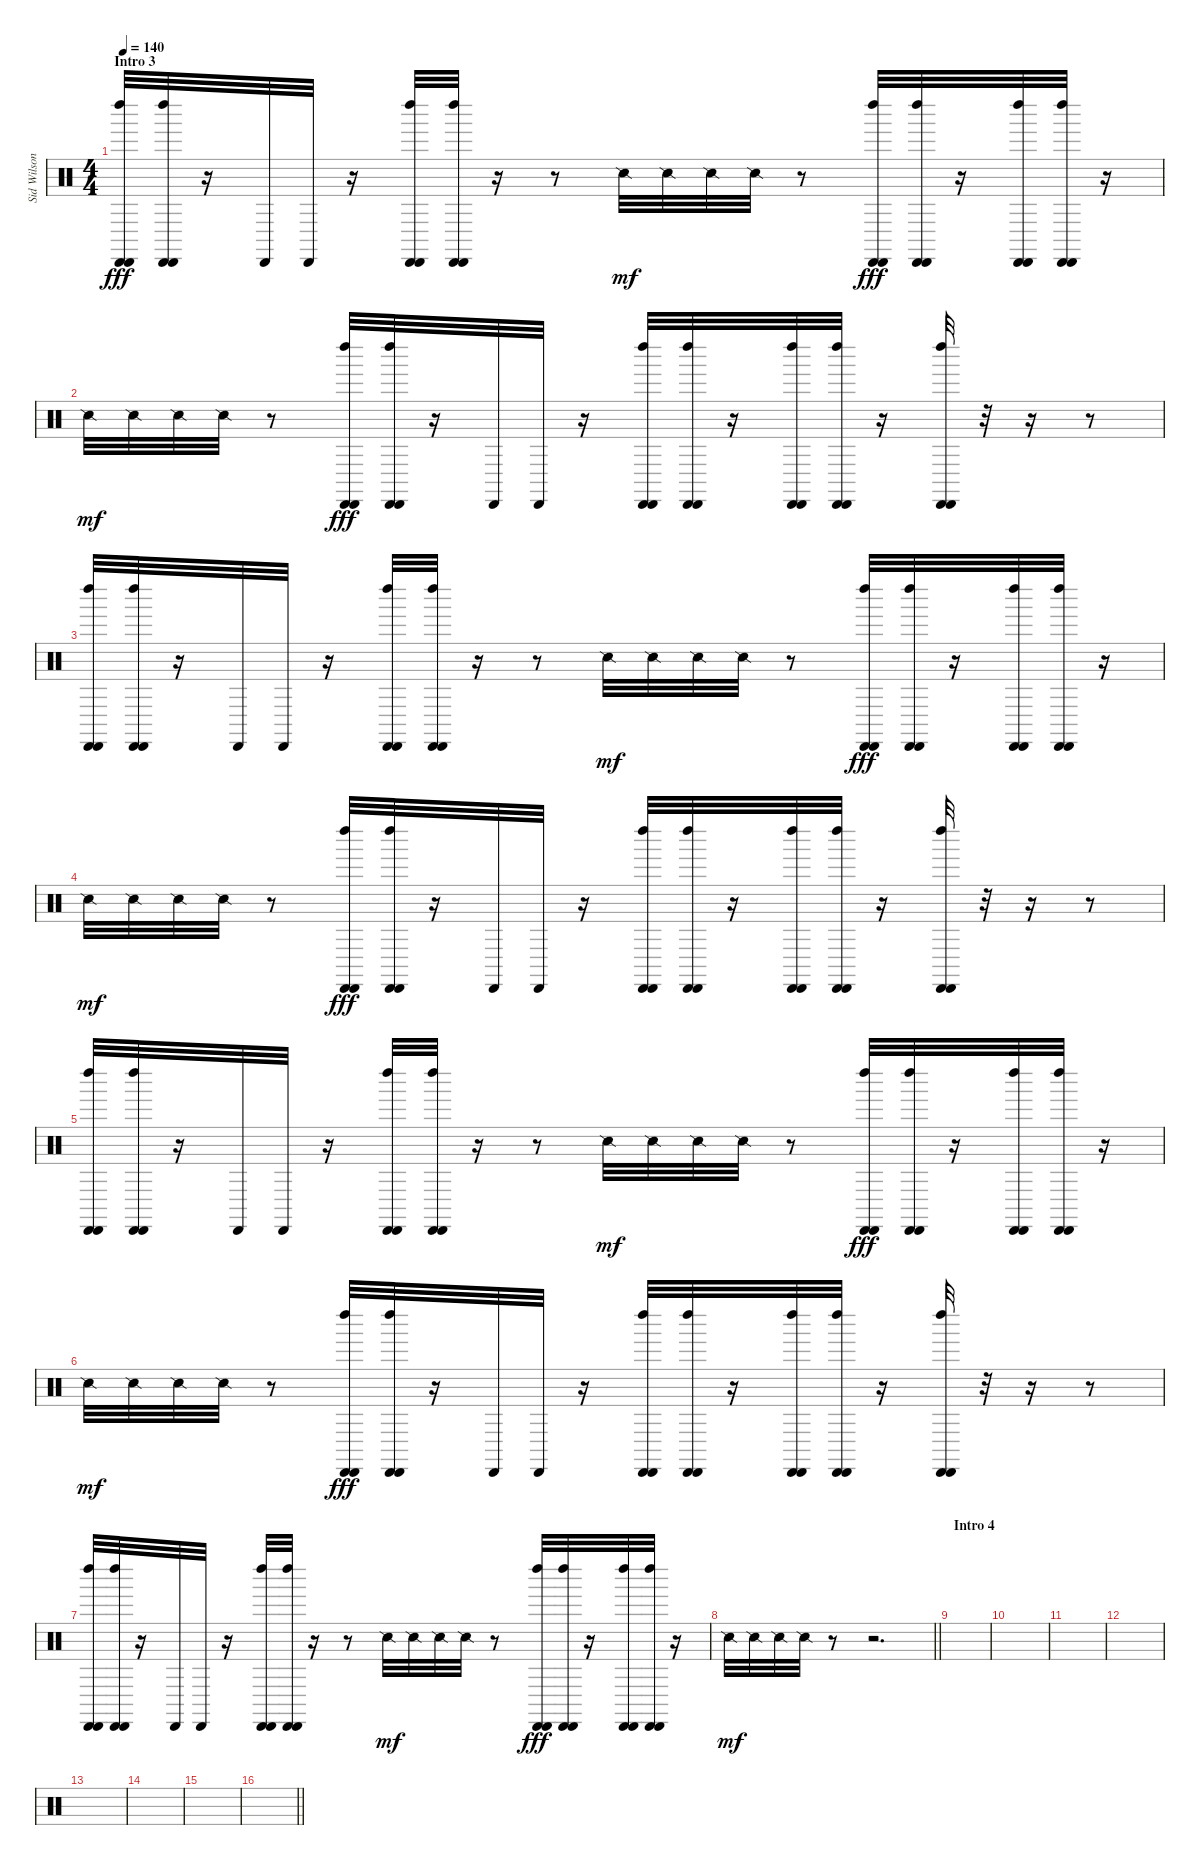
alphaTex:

\track ("Sid Wilson" "Sid Wilson") {instrument percussion}
\staff {score}
\articulation defaults
\ts (4 4)
\section ("" "Intro 3")
\tempo 140
\clef neutral
\ks c
("Cabasa (hit)" "Left Maraca (hit)" "Cabasa (hit)").32{dy fff} ("Cabasa (hit)" "Left Maraca (hit)" "Cabasa (hit)").32 r.16 "Cabasa (hit)".32 "Cabasa (hit)".32 r.16 ("Cabasa (hit)" "Left Maraca (hit)" "Cabasa (hit)").32 ("Cabasa (hit)" "Left Maraca (hit)" "Cabasa (hit)").32 r.16 r.8 "Snare (side stick) 2".32{dy mf} "Snare (side stick) 2".32 "Snare (side stick) 2".32 "Snare (side stick) 2".32 r.8 ("Cabasa (hit)" "Left Maraca (hit)" "Cabasa (hit)").32{dy fff} ("Cabasa (hit)" "Left Maraca (hit)" "Cabasa (hit)").32 r.16 ("Cabasa (hit)" "Left Maraca (hit)" "Cabasa (hit)").32 ("Cabasa (hit)" "Left Maraca (hit)" "Cabasa (hit)").32 r.16 |
"Snare (side stick) 2".32{dy mf} "Snare (side stick) 2".32 "Snare (side stick) 2".32 "Snare (side stick) 2".32 r.8 ("Cabasa (hit)" "Left Maraca (hit)" "Cabasa (hit)").32{dy fff} ("Cabasa (hit)" "Left Maraca (hit)" "Cabasa (hit)").32 r.16 "Cabasa (hit)".32 "Cabasa (hit)".32 r.16 ("Cabasa (hit)" "Left Maraca (hit)" "Cabasa (hit)").32 ("Cabasa (hit)" "Left Maraca (hit)" "Cabasa (hit)").32 r.16 ("Cabasa (hit)" "Left Maraca (hit)" "Cabasa (hit)").32 ("Cabasa (hit)" "Left Maraca (hit)" "Cabasa (hit)").32 r.16 ("Cabasa (hit)" "Left Maraca (hit)" "Cabasa (hit)").32 r.32 r.16 r.8 |
("Cabasa (hit)" "Left Maraca (hit)" "Cabasa (hit)").32 ("Cabasa (hit)" "Left Maraca (hit)" "Cabasa (hit)").32 r.16 "Cabasa (hit)".32 "Cabasa (hit)".32 r.16 ("Cabasa (hit)" "Left Maraca (hit)" "Cabasa (hit)").32 ("Cabasa (hit)" "Left Maraca (hit)" "Cabasa (hit)").32 r.16 r.8 "Snare (side stick) 2".32{dy mf} "Snare (side stick) 2".32 "Snare (side stick) 2".32 "Snare (side stick) 2".32 r.8 ("Cabasa (hit)" "Left Maraca (hit)" "Cabasa (hit)").32{dy fff} ("Cabasa (hit)" "Left Maraca (hit)" "Cabasa (hit)").32 r.16 ("Cabasa (hit)" "Left Maraca (hit)" "Cabasa (hit)").32 ("Cabasa (hit)" "Left Maraca (hit)" "Cabasa (hit)").32 r.16 |
"Snare (side stick) 2".32{dy mf} "Snare (side stick) 2".32 "Snare (side stick) 2".32 "Snare (side stick) 2".32 r.8 ("Cabasa (hit)" "Left Maraca (hit)" "Cabasa (hit)").32{dy fff} ("Cabasa (hit)" "Left Maraca (hit)" "Cabasa (hit)").32 r.16 "Cabasa (hit)".32 "Cabasa (hit)".32 r.16 ("Cabasa (hit)" "Left Maraca (hit)" "Cabasa (hit)").32 ("Cabasa (hit)" "Left Maraca (hit)" "Cabasa (hit)").32 r.16 ("Cabasa (hit)" "Left Maraca (hit)" "Cabasa (hit)").32 ("Cabasa (hit)" "Left Maraca (hit)" "Cabasa (hit)").32 r.16 ("Cabasa (hit)" "Left Maraca (hit)" "Cabasa (hit)").32 r.32 r.16 r.8 |
("Cabasa (hit)" "Left Maraca (hit)" "Cabasa (hit)").32 ("Cabasa (hit)" "Left Maraca (hit)" "Cabasa (hit)").32 r.16 "Cabasa (hit)".32 "Cabasa (hit)".32 r.16 ("Cabasa (hit)" "Left Maraca (hit)" "Cabasa (hit)").32 ("Cabasa (hit)" "Left Maraca (hit)" "Cabasa (hit)").32 r.16 r.8 "Snare (side stick) 2".32{dy mf} "Snare (side stick) 2".32 "Snare (side stick) 2".32 "Snare (side stick) 2".32 r.8 ("Cabasa (hit)" "Left Maraca (hit)" "Cabasa (hit)").32{dy fff} ("Cabasa (hit)" "Left Maraca (hit)" "Cabasa (hit)").32 r.16 ("Cabasa (hit)" "Left Maraca (hit)" "Cabasa (hit)").32 ("Cabasa (hit)" "Left Maraca (hit)" "Cabasa (hit)").32 r.16 |
"Snare (side stick) 2".32{dy mf} "Snare (side stick) 2".32 "Snare (side stick) 2".32 "Snare (side stick) 2".32 r.8 ("Cabasa (hit)" "Left Maraca (hit)" "Cabasa (hit)").32{dy fff} ("Cabasa (hit)" "Left Maraca (hit)" "Cabasa (hit)").32 r.16 "Cabasa (hit)".32 "Cabasa (hit)".32 r.16 ("Cabasa (hit)" "Left Maraca (hit)" "Cabasa (hit)").32 ("Cabasa (hit)" "Left Maraca (hit)" "Cabasa (hit)").32 r.16 ("Cabasa (hit)" "Left Maraca (hit)" "Cabasa (hit)").32 ("Cabasa (hit)" "Left Maraca (hit)" "Cabasa (hit)").32 r.16 ("Cabasa (hit)" "Left Maraca (hit)" "Cabasa (hit)").32 r.32 r.16 r.8 |
("Cabasa (hit)" "Left Maraca (hit)" "Cabasa (hit)").32 ("Cabasa (hit)" "Left Maraca (hit)" "Cabasa (hit)").32 r.16 "Cabasa (hit)".32 "Cabasa (hit)".32 r.16 ("Cabasa (hit)" "Left Maraca (hit)" "Cabasa (hit)").32 ("Cabasa (hit)" "Left Maraca (hit)" "Cabasa (hit)").32 r.16 r.8 "Snare (side stick) 2".32{dy mf} "Snare (side stick) 2".32 "Snare (side stick) 2".32 "Snare (side stick) 2".32 r.8 ("Cabasa (hit)" "Left Maraca (hit)" "Cabasa (hit)").32{dy fff} ("Cabasa (hit)" "Left Maraca (hit)" "Cabasa (hit)").32 r.16 ("Cabasa (hit)" "Left Maraca (hit)" "Cabasa (hit)").32 ("Cabasa (hit)" "Left Maraca (hit)" "Cabasa (hit)").32 r.16 |
\barLineRight lightlight "Snare (side stick) 2".32{dy mf} "Snare (side stick) 2".32 "Snare (side stick) 2".32 "Snare (side stick) 2".32
r.8 r.2{d} |
\section ("" "Intro 4")
|
|
|
|
|
|
|
\barLineRight lightlight
